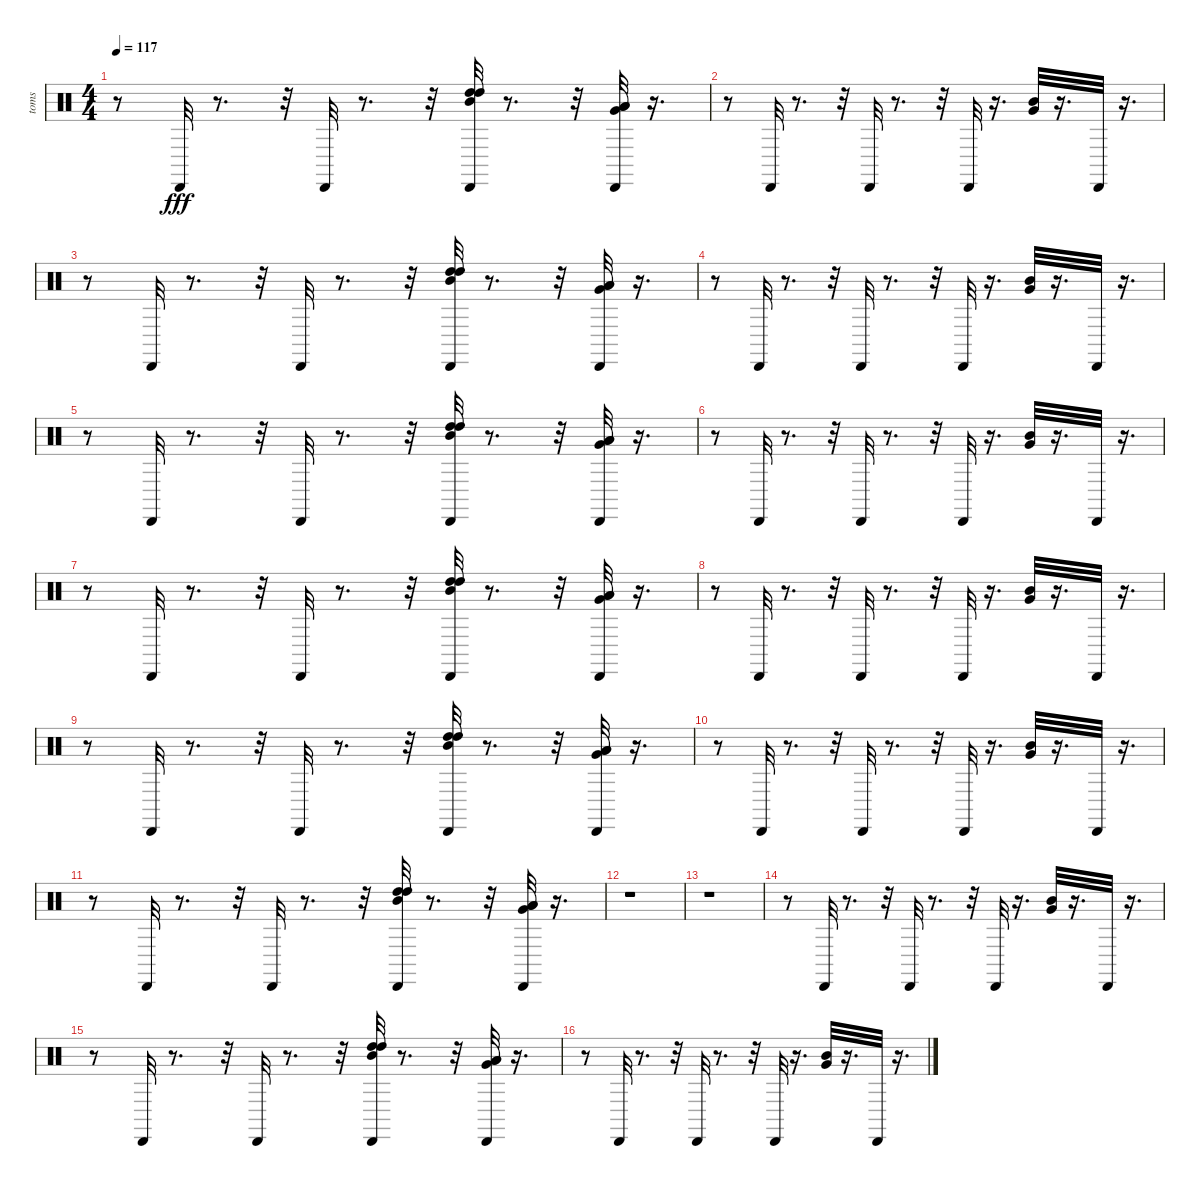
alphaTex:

\track ("toms" "toms") {instrument percussion}
\staff {score}
\articulation defaults
\ts (4 4)
\tempo 117
\clef neutral
\ks c
r.8{dy fff} "Cabasa (hit)".32 r.8{d} r.32 "Cabasa (hit)".32 r.8{d} r.32 ("High Tom (hit)" "High Tom (hit)" "Mid Tom (hit)" "Cabasa (hit)").32 r.8{d} r.32 ("Low Tom (hit)" "Low Tom (hit)" "Very Low Tom (hit)" "Cabasa (hit)").32 r.16{d} |
r.8 "Cabasa (hit)".32 r.8{d} r.32 "Cabasa (hit)".32 r.8{d} r.32 "Cabasa (hit)".32 r.16{d} ("Very Low Tom (hit)" "Mid Tom (hit)").32 r.16{d} "Cabasa (hit)".32 r.16{d} |
r.8 "Cabasa (hit)".32 r.8{d} r.32 "Cabasa (hit)".32 r.8{d} r.32 ("High Tom (hit)" "High Tom (hit)" "Mid Tom (hit)" "Cabasa (hit)").32 r.8{d} r.32 ("Low Tom (hit)" "Low Tom (hit)" "Very Low Tom (hit)" "Cabasa (hit)").32 r.16{d} |
r.8 "Cabasa (hit)".32 r.8{d} r.32 "Cabasa (hit)".32 r.8{d} r.32 "Cabasa (hit)".32 r.16{d} ("Very Low Tom (hit)" "Mid Tom (hit)").32 r.16{d} "Cabasa (hit)".32 r.16{d} |
r.8 "Cabasa (hit)".32 r.8{d} r.32 "Cabasa (hit)".32 r.8{d} r.32 ("High Tom (hit)" "High Tom (hit)" "Mid Tom (hit)" "Cabasa (hit)").32 r.8{d} r.32 ("Low Tom (hit)" "Low Tom (hit)" "Very Low Tom (hit)" "Cabasa (hit)").32 r.16{d} |
r.8 "Cabasa (hit)".32 r.8{d} r.32 "Cabasa (hit)".32 r.8{d} r.32 "Cabasa (hit)".32 r.16{d} ("Very Low Tom (hit)" "Mid Tom (hit)").32 r.16{d} "Cabasa (hit)".32 r.16{d} |
r.8 "Cabasa (hit)".32 r.8{d} r.32 "Cabasa (hit)".32 r.8{d} r.32 ("High Tom (hit)" "High Tom (hit)" "Mid Tom (hit)" "Cabasa (hit)").32 r.8{d} r.32 ("Low Tom (hit)" "Low Tom (hit)" "Very Low Tom (hit)" "Cabasa (hit)").32 r.16{d} |
r.8 "Cabasa (hit)".32 r.8{d} r.32 "Cabasa (hit)".32 r.8{d} r.32 "Cabasa (hit)".32 r.16{d} ("Very Low Tom (hit)" "Mid Tom (hit)").32 r.16{d} "Cabasa (hit)".32 r.16{d} |
r.8 "Cabasa (hit)".32 r.8{d} r.32 "Cabasa (hit)".32 r.8{d} r.32 ("High Tom (hit)" "High Tom (hit)" "Mid Tom (hit)" "Cabasa (hit)").32 r.8{d} r.32 ("Low Tom (hit)" "Low Tom (hit)" "Very Low Tom (hit)" "Cabasa (hit)").32 r.16{d} |
r.8 "Cabasa (hit)".32 r.8{d} r.32 "Cabasa (hit)".32 r.8{d} r.32 "Cabasa (hit)".32 r.16{d} ("Very Low Tom (hit)" "Mid Tom (hit)").32 r.16{d} "Cabasa (hit)".32 r.16{d} |
r.8 "Cabasa (hit)".32 r.8{d} r.32 "Cabasa (hit)".32 r.8{d} r.32 ("High Tom (hit)" "High Tom (hit)" "Mid Tom (hit)" "Cabasa (hit)").32 r.8{d} r.32 ("Low Tom (hit)" "Low Tom (hit)" "Very Low Tom (hit)" "Cabasa (hit)").32 r.16{d} |
r.1 |
r.1 |
r.8 "Cabasa (hit)".32 r.8{d} r.32 "Cabasa (hit)".32 r.8{d} r.32 "Cabasa (hit)".32 r.16{d} ("Very Low Tom (hit)" "Mid Tom (hit)").32 r.16{d} "Cabasa (hit)".32 r.16{d} |
r.8 "Cabasa (hit)".32 r.8{d} r.32 "Cabasa (hit)".32 r.8{d} r.32 ("High Tom (hit)" "High Tom (hit)" "Mid Tom (hit)" "Cabasa (hit)").32 r.8{d} r.32 ("Low Tom (hit)" "Low Tom (hit)" "Very Low Tom (hit)" "Cabasa (hit)").32 r.16{d} |
r.8 "Cabasa (hit)".32 r.8{d} r.32 "Cabasa (hit)".32 r.8{d} r.32 "Cabasa (hit)".32 r.16{d} ("Very Low Tom (hit)" "Mid Tom (hit)").32 r.16{d} "Cabasa (hit)".32 r.16{d}
